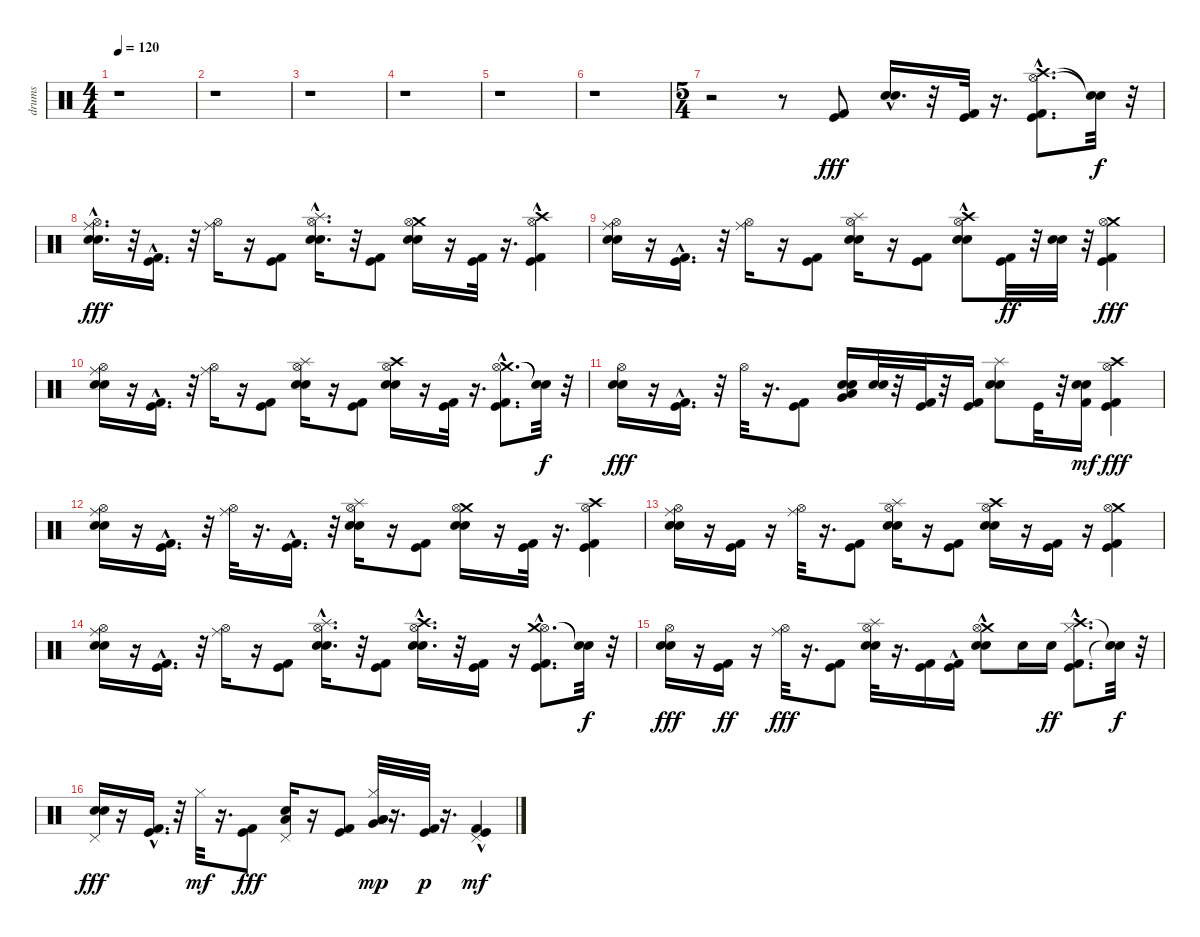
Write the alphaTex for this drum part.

\track ("drums" "drums") {instrument percussion}
\staff {score}
\articulation defaults
\ts (4 4)
\tempo 120
\clef neutral
\ks c
r.1{dy fff} |
r.1 |
r.1 |
r.1 |
r.1 |
r.1 |
\ts (5 4)
r.2 r.8 ("Kick (hit) 2" "Kick (hit)").8 ("Snare (hit) 2"{hac} "Electric Snare (hit)"{hac}).16{d} r.32 ("Kick (hit)" "Kick (hit) 2").32 r.16{d} ("Hi-Hat (open)" "Crash high (hit)"{hac} "Kick (hit) 2"{hac} "Kick (hit)"{hac}).8{d} ("Snare (hit)"{t} "Snare (hit)"{t}).32{dy f} r.32 |
("Hi-Hat (open)"{hac} "Ride (middle)" "Snare (hit) 2" "Electric Snare (hit)").16{d dy fff} r.32 ("Kick (hit) 2"{hac} "Kick (hit)"{hac}).16{d} r.32 ("Hi-Hat (open)" "Ride (middle)").16 r.16 ("Kick (hit)" "Kick (hit) 2").8 ("Hi-Hat (open)" "Splash (hit)" "Electric Snare (hit)"{hac} "Snare (hit) 2").16{d} r.32 ("Kick (hit) 2" "Kick (hit)").8 ("Crash medium (hit)" "Hi-Hat (open)" "Electric Snare (hit)" "Snare (hit) 2").16 r.16 ("Kick (hit) 2" "Kick (hit)").32 r.16{d} ("Hi-Hat (open)" "Crash high (hit)" "Kick (hit) 2"{hac} "Kick (hit)").4 |
("Hi-Hat (open)" "Ride (middle)" "Snare (hit) 2" "Electric Snare (hit)").16 r.16 ("Kick (hit)"{hac} "Kick (hit) 2"{hac}).16{d} r.32 ("Hi-Hat (open)" "Ride (middle)").16 r.16 ("Kick (hit) 2" "Kick (hit)").8 ("Hi-Hat (open)" "Splash (hit)" "Electric Snare (hit)" "Snare (hit) 2").16 r.16 ("Kick (hit) 2" "Kick (hit)").8 ("Crash high (hit)" "Hi-Hat (open)" "Electric Snare (hit)" "Snare (hit) 2"{hac}).8 ("Kick (hit)" "Kick (hit) 2").32{dy ff} r.32 ("Snare (hit) 2" "Electric Snare (hit)").32 r.32 ("Crash medium (hit)" "Hi-Hat (open)" "Kick (hit) 2" "Kick (hit)").4{dy fff} |
("Hi-Hat (open)" "Ride (middle)" "Electric Snare (hit)" "Snare (hit) 2").16 r.16 ("Kick (hit)"{hac} "Kick (hit) 2").16{d} r.32 ("Hi-Hat (open)" "Ride (middle)").16 r.16 ("Kick (hit)" "Kick (hit) 2").8 ("Hi-Hat (open)" "Splash (hit)" "Snare (hit) 2" "Electric Snare (hit)").16 r.16 ("Kick (hit) 2" "Kick (hit)").8 ("Crash high (hit)" "Hi-Hat (open)" "Snare (hit) 2" "Electric Snare (hit)").16 r.16 ("Kick (hit) 2" "Kick (hit)").32 r.16{d} ("Crash medium (hit)" "Hi-Hat (open)" "Kick (hit) 2"{hac} "Kick (hit)"{hac}).8{d} ("Snare (hit)"{t} "Snare (hit)"{t}).32{dy f} r.32 |
("Hi-Hat (open)" "Electric Snare (hit)" "Snare (hit) 2").16{dy fff} r.16 ("Kick (hit) 2"{hac} "Kick (hit)"{hac}).16{d} r.32 "Hi-Hat (open)".32 r.16{d} ("Kick (hit) 2" "Kick (hit)").8 ("Very Low Tom (hit)" "Low Floor Tom (hit)" "Electric Snare (hit)" "Snare (hit) 2").16 ("Snare (hit) 2" "Electric Snare (hit)").32 r.32 ("Kick (hit) 2" "Kick (hit)").32 r.32 ("Kick (hit) 2" "Kick (hit)").16 ("Splash (hit)" "Snare (hit) 2" "Electric Snare (hit)").8 "Kick (hit)".32 r.32 ("Kick (hit) 2" "Snare (hit) 2" "Electric Snare (hit)").16{dy mf} ("Crash high (hit)" "Hi-Hat (open)" "Kick (hit) 2" "Kick (hit)").4{dy fff} |
("Hi-Hat (open)" "Ride (middle)" "Electric Snare (hit)" "Snare (hit) 2").16 r.16 ("Kick (hit) 2"{hac} "Kick (hit)"{hac}).16{d} r.32 ("Hi-Hat (open)" "Ride (middle)").32 r.16{d} ("Kick (hit) 2"{hac} "Kick (hit)"{hac}).16{d} r.32 ("Hi-Hat (open)" "Splash (hit)" "Electric Snare (hit)" "Snare (hit) 2").16 r.16 ("Kick (hit) 2" "Kick (hit)").8 ("Crash medium (hit)" "Hi-Hat (open)" "Electric Snare (hit)" "Snare (hit) 2").16 r.16 ("Kick (hit)" "Kick (hit) 2").32 r.16{d} ("Crash high (hit)" "Hi-Hat (open)" "Kick (hit) 2" "Kick (hit)").4 |
("Hi-Hat (open)" "Ride (middle)" "Snare (hit) 2" "Electric Snare (hit)").16 r.16 ("Kick (hit) 2" "Kick (hit)").16 r.16 ("Hi-Hat (open)" "Ride (middle)").32 r.16{d} ("Kick (hit) 2" "Kick (hit)").8 ("Hi-Hat (open)" "Splash (hit)" "Electric Snare (hit)" "Snare (hit) 2").16 r.16 ("Kick (hit) 2" "Kick (hit)").8 ("Crash high (hit)" "Hi-Hat (open)" "Electric Snare (hit)" "Snare (hit) 2").16 r.16 ("Kick (hit)" "Kick (hit) 2").16 r.16 ("Crash medium (hit)" "Hi-Hat (open)" "Kick (hit) 2" "Kick (hit)").4 |
("Hi-Hat (open)" "Ride (middle)" "Electric Snare (hit)" "Snare (hit) 2").16 r.16 ("Kick (hit)"{hac} "Kick (hit) 2"{hac}).16{d} r.32 ("Hi-Hat (open)" "Ride (middle)").16 r.16 ("Kick (hit) 2" "Kick (hit)").8 ("Hi-Hat (open)" "Splash (hit)" "Snare (hit) 2"{hac} "Electric Snare (hit)"{hac}).16{d} r.32 ("Kick (hit) 2" "Kick (hit)").8 ("Hi-Hat (open)" "Crash high (hit)" "Snare (hit) 2"{hac} "Electric Snare (hit)"{hac}).16{d} r.32 ("Kick (hit) 2" "Kick (hit)").16 r.16 ("Hi-Hat (open)" "Crash medium (hit)" "Kick (hit) 2"{hac} "Kick (hit)"{hac}).8{d} ("Snare (hit)"{t} "Snare (hit)"{t}).32{dy f} r.32 |
("Hi-Hat (open)" "Snare (hit) 2" "Electric Snare (hit)").16{dy fff} r.16 ("Kick (hit)" "Kick (hit) 2").16{dy ff} r.16 ("Hi-Hat (open)" "Ride (middle)").32{dy fff} r.16{d} ("Kick (hit)" "Kick (hit) 2").8 ("Splash (hit)" "Hi-Hat (open)" "Electric Snare (hit)" "Snare (hit) 2").32 r.16{d} ("Kick (hit) 2" "Kick (hit)").16 ("Kick (hit) 2"{hac} "Kick (hit)").16 ("Crash medium (hit)" "Hi-Hat (open)" "Snare (hit) 2"{hac} "Electric Snare (hit)").8 "Snare (hit) 2".16 "Snare (hit) 2".16{dy ff} ("Crash high (hit)" "Kick (hit) 2"{hac} "Kick (hit)"{hac} "Hi-Hat (closed)").8{d} ("Snare (hit)"{t} "Snare (hit)"{t}).32{dy f} r.32 |
("Electric Snare (hit)" "Snare (hit) 2" "Pedal Hi-Hat (hit)").16{dy fff} r.16 ("Kick (hit) 2"{hac} "Kick (hit)"{hac}).16{d} r.32 "Hi-Hat (closed)".32{dy mf} r.16{d} ("Kick (hit) 2" "Kick (hit)").8{dy fff} ("Snare (hit) 2" "Low Floor Tom (hit)" "Pedal Hi-Hat (hit)").16 r.16 ("Kick (hit)" "Kick (hit) 2").8 ("Low Tom (hit)" "Very Low Tom (hit)" "Low Floor Tom (hit)" "Hi-Hat (closed)").32{dy mp} r.16{d} ("Kick (hit) 2" "Kick (hit)").32{dy p} r.16{d} ("Kick (hit) 2"{hac} "Kick (hit)" "Pedal Hi-Hat (hit)").4{dy mf}
